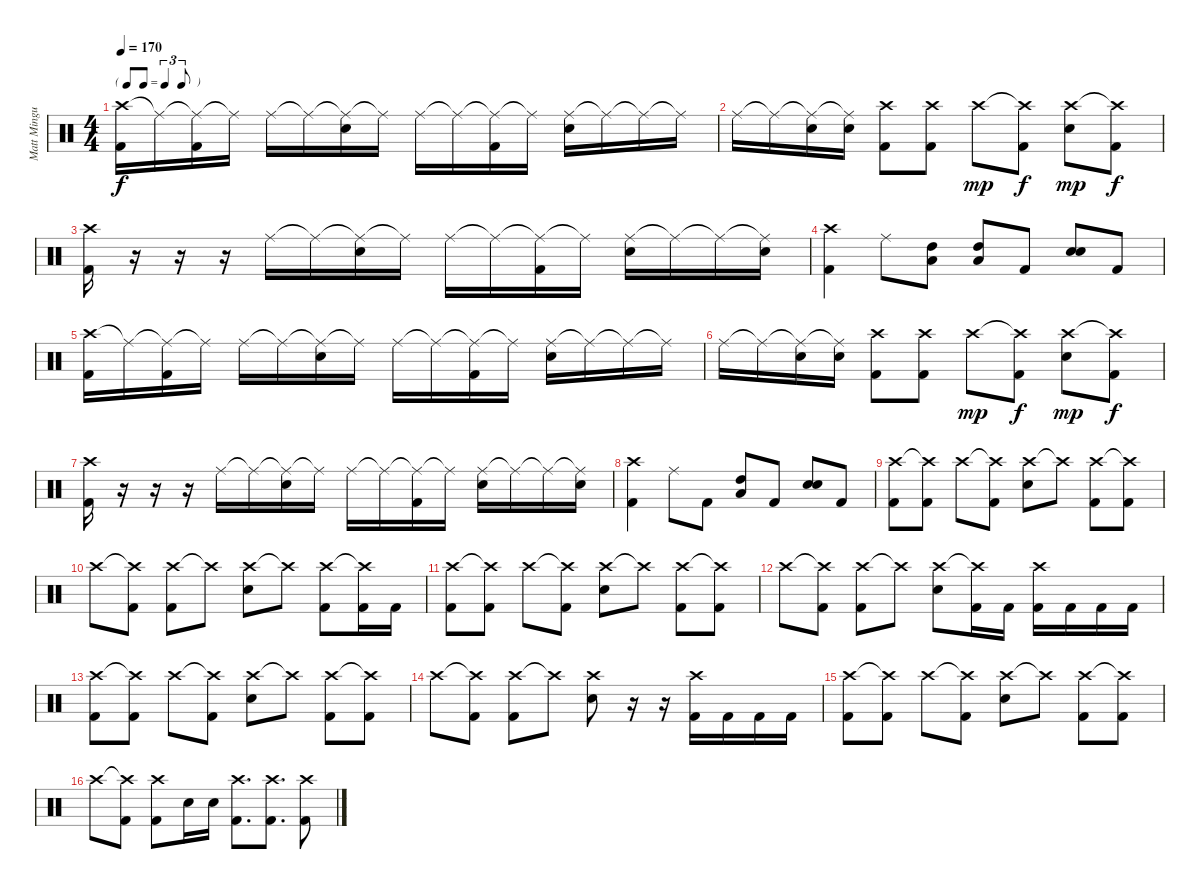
\track ("Matt Mingus" "Matt Mingu") {instrument percussion}
\staff {score}
\articulation defaults
\ts (4 4)
\tf triplet8th
\tempo 170
\clef neutral
\ks c
("Crash high (hit)" "Kick (hit) 2").16{dy f} "Ride (middle)"{t}.16 ("Ride (middle)"{t} "Kick (hit) 2").16 "Ride (middle)"{t}.16 "Ride (middle)".16 "Ride (middle)"{t}.16 ("Ride (middle)"{t} "Electric Snare (hit)").16 "Ride (middle)"{t}.16 "Ride (middle)".16 "Ride (middle)"{t}.16 ("Ride (middle)"{t} "Kick (hit) 2").16 "Ride (middle)"{t}.16 ("Ride (middle)" "Electric Snare (hit)").16 "Ride (middle)"{t}.16 "Ride (middle)"{t}.16 "Ride (middle)"{t}.16 |
"Ride (middle)".16 "Ride (middle)"{t}.16 ("Ride (middle)"{t} "Electric Snare (hit)").16 ("Ride (middle)"{t} "Electric Snare (hit)").16 ("Crash high (hit)" "Kick (hit) 2").8 ("Crash high (hit)" "Kick (hit) 2").8 "Crash high (hit)".8{dy mp} ("Crash high (hit)"{t} "Kick (hit) 2").8{dy f} ("Crash high (hit)" "Electric Snare (hit)").8{dy mp} ("Crash high (hit)"{t} "Kick (hit) 2").8{dy f} |
("Crash high (hit)" "Kick (hit) 2").16 r.16 r.16 r.16 "Ride (middle)".16 "Ride (middle)"{t}.16 ("Ride (middle)"{t} "Electric Snare (hit)").16 "Ride (middle)"{t}.16 "Ride (middle)".16 "Ride (middle)"{t}.16 ("Ride (middle)"{t} "Kick (hit) 2").16 "Ride (middle)"{t}.16 ("Ride (middle)" "Electric Snare (hit)").16 "Ride (middle)"{t}.16 "Ride (middle)"{t}.16 ("Ride (middle)"{t} "Electric Snare (hit)").16 |
("Crash high (hit)" "Kick (hit) 2").4 "Ride (middle)".8 ("High Tom (hit)" "Low Floor Tom (hit)").8 ("High Tom (hit)" "Low Floor Tom (hit)").8 "Kick (hit) 2".8 ("Snare (hit) 2" "Electric Snare (hit)").8 "Kick (hit) 2".8 |
("Crash high (hit)" "Kick (hit) 2").16 "Ride (middle)"{t}.16 ("Ride (middle)"{t} "Kick (hit) 2").16 "Ride (middle)"{t}.16 "Ride (middle)".16 "Ride (middle)"{t}.16 ("Ride (middle)"{t} "Electric Snare (hit)").16 "Ride (middle)"{t}.16 "Ride (middle)".16 "Ride (middle)"{t}.16 ("Ride (middle)"{t} "Kick (hit) 2").16 "Ride (middle)"{t}.16 ("Ride (middle)" "Electric Snare (hit)").16 "Ride (middle)"{t}.16 "Ride (middle)"{t}.16 "Ride (middle)"{t}.16 |
"Ride (middle)".16 "Ride (middle)"{t}.16 ("Ride (middle)"{t} "Electric Snare (hit)").16 ("Ride (middle)"{t} "Electric Snare (hit)").16 ("Crash high (hit)" "Kick (hit) 2").8 ("Crash high (hit)" "Kick (hit) 2").8 "Crash high (hit)".8{dy mp} ("Crash high (hit)"{t} "Kick (hit) 2").8{dy f} ("Crash high (hit)" "Electric Snare (hit)").8{dy mp} ("Crash high (hit)"{t} "Kick (hit) 2").8{dy f} |
("Crash high (hit)" "Kick (hit) 2").16 r.16 r.16 r.16 "Ride (middle)".16 "Ride (middle)"{t}.16 ("Ride (middle)"{t} "Electric Snare (hit)").16 "Ride (middle)"{t}.16 "Ride (middle)".16 "Ride (middle)"{t}.16 ("Ride (middle)"{t} "Kick (hit) 2").16 "Ride (middle)"{t}.16 ("Ride (middle)" "Electric Snare (hit)").16 "Ride (middle)"{t}.16 "Ride (middle)"{t}.16 ("Ride (middle)"{t} "Electric Snare (hit)").16 |
("Crash high (hit)" "Kick (hit) 2").4 "Ride (middle)".8 "Kick (hit) 2".8 ("High Tom (hit)" "Low Floor Tom (hit)").8 "Kick (hit) 2".8 ("Snare (hit) 2" "Electric Snare (hit)").8 "Kick (hit) 2".8 |
("Crash high (hit)" "Kick (hit) 2").8 ("Crash high (hit)"{t} "Kick (hit) 2").8 "Crash high (hit)".8 ("Crash high (hit)"{t} "Kick (hit) 2").8 ("Crash high (hit)" "Electric Snare (hit)").8 "Crash high (hit)"{t}.8 ("Crash high (hit)" "Kick (hit) 2").8 ("Crash high (hit)"{t} "Kick (hit) 2").8 |
"Crash high (hit)".8 ("Crash high (hit)"{t} "Kick (hit) 2").8 ("Crash high (hit)" "Kick (hit) 2").8 "Crash high (hit)"{t}.8 ("Crash high (hit)" "Electric Snare (hit)").8 "Crash high (hit)"{t}.8 ("Crash high (hit)" "Kick (hit) 2").8 ("Crash high (hit)"{t} "Kick (hit) 2").16 "Kick (hit) 2".16 |
("Crash high (hit)" "Kick (hit) 2").8 ("Crash high (hit)"{t} "Kick (hit) 2").8 "Crash high (hit)".8 ("Crash high (hit)"{t} "Kick (hit) 2").8 ("Crash high (hit)" "Electric Snare (hit)").8 "Crash high (hit)"{t}.8 ("Crash high (hit)" "Kick (hit) 2").8 ("Crash high (hit)"{t} "Kick (hit) 2").8 |
"Crash high (hit)".8 ("Crash high (hit)"{t} "Kick (hit) 2").8 ("Crash high (hit)" "Kick (hit) 2").8 "Crash high (hit)"{t}.8 ("Crash high (hit)" "Electric Snare (hit)").8 ("Crash high (hit)"{t} "Kick (hit) 2").16 "Kick (hit) 2".16 ("Crash high (hit)" "Kick (hit) 2").16 "Kick (hit) 2".16 "Kick (hit) 2".16 "Kick (hit) 2".16 |
("Crash high (hit)" "Kick (hit) 2").8 ("Crash high (hit)"{t} "Kick (hit) 2").8 "Crash high (hit)".8 ("Crash high (hit)"{t} "Kick (hit) 2").8 ("Crash high (hit)" "Electric Snare (hit)").8 "Crash high (hit)"{t}.8 ("Crash high (hit)" "Kick (hit) 2").8 ("Crash high (hit)"{t} "Kick (hit) 2").8 |
"Crash high (hit)".8 ("Crash high (hit)"{t} "Kick (hit) 2").8 ("Crash high (hit)" "Kick (hit) 2").8 "Crash high (hit)"{t}.8 ("Crash high (hit)" "Electric Snare (hit)").8 r.16 r.16 ("Crash high (hit)" "Kick (hit) 2").16 "Kick (hit) 2".16 "Kick (hit) 2".16 "Kick (hit) 2".16 |
("Crash high (hit)" "Kick (hit) 2").8 ("Crash high (hit)"{t} "Kick (hit) 2").8 "Crash high (hit)".8 ("Crash high (hit)"{t} "Kick (hit) 2").8 ("Crash high (hit)" "Electric Snare (hit)").8 "Crash high (hit)"{t}.8 ("Crash high (hit)" "Kick (hit) 2").8 ("Crash high (hit)"{t} "Kick (hit) 2").8 |
"Crash high (hit)".8 ("Crash high (hit)"{t} "Kick (hit) 2").8 ("Crash high (hit)" "Kick (hit) 2").8 "Electric Snare (hit)".16 "Electric Snare (hit)".16 ("Crash high (hit)" "Kick (hit) 2").8{d} ("Crash high (hit)" "Kick (hit) 2").8{d} ("Crash high (hit)" "Kick (hit) 2").8
